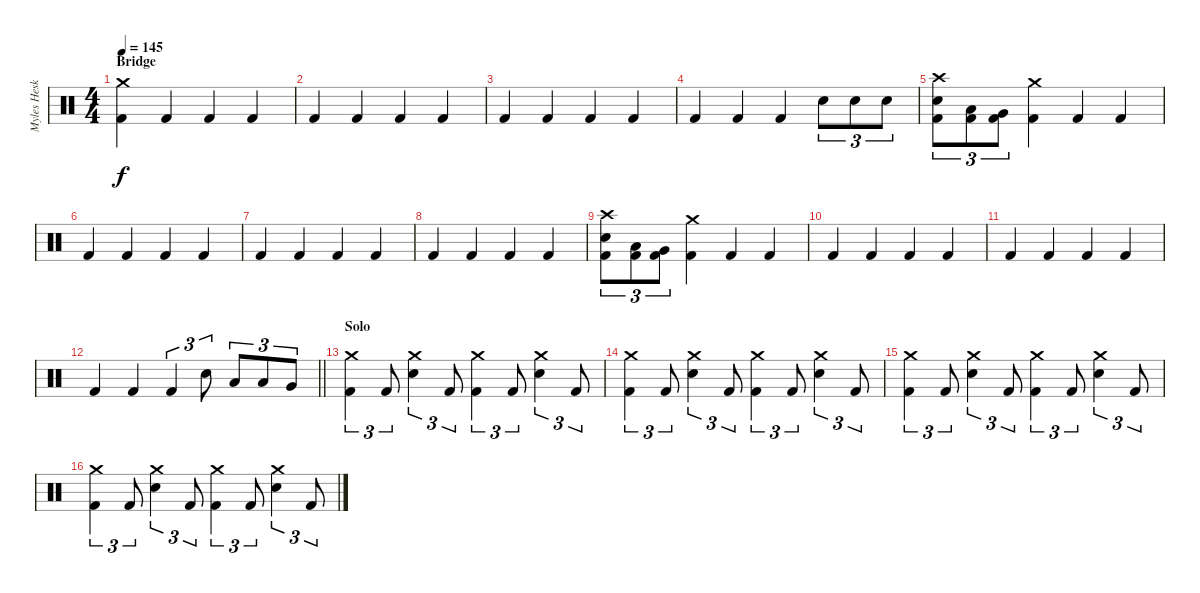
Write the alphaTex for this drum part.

\track ("Myles Heskett" "Myles Hesk") {instrument percussion}
\staff {score}
\articulation defaults
\ts (4 4)
\section ("" "Bridge")
\tempo 145
\clef neutral
\ks c
("Crash medium (hit)" "Kick (hit) 2").4{dy f} "Kick (hit) 2".4 "Kick (hit) 2".4 "Kick (hit) 2".4 |
"Kick (hit) 2".4 "Kick (hit) 2".4 "Kick (hit) 2".4 "Kick (hit) 2".4 |
"Kick (hit) 2".4 "Kick (hit) 2".4 "Kick (hit) 2".4 "Kick (hit) 2".4 |
"Kick (hit) 2".4 "Kick (hit) 2".4 "Kick (hit) 2".4 "Snare (hit) 2".8{tu (3 2)} "Snare (hit) 2".8{tu (3 2)} "Snare (hit) 2".8{tu (3 2)} |
("Crash high (hit)" "Snare (hit) 2" "Kick (hit) 2").8{tu (3 2)} ("Low Tom (hit)" "Kick (hit) 2").8{tu (3 2)} ("Very Low Tom (hit)" "Kick (hit) 2").8{tu (3 2)} ("Crash medium (hit)" "Kick (hit) 2").4 "Kick (hit) 2".4 "Kick (hit) 2".4 |
"Kick (hit) 2".4 "Kick (hit) 2".4 "Kick (hit) 2".4 "Kick (hit) 2".4 |
"Kick (hit) 2".4 "Kick (hit) 2".4 "Kick (hit) 2".4 "Kick (hit) 2".4 |
"Kick (hit) 2".4 "Kick (hit) 2".4 "Kick (hit) 2".4 "Kick (hit) 2".4 |
("Crash high (hit)" "Snare (hit) 2" "Kick (hit) 2").8{tu (3 2)} ("Low Tom (hit)" "Kick (hit) 2").8{tu (3 2)} ("Very Low Tom (hit)" "Kick (hit) 2").8{tu (3 2)} ("Crash medium (hit)" "Kick (hit) 2").4 "Kick (hit) 2".4 "Kick (hit) 2".4 |
"Kick (hit) 2".4 "Kick (hit) 2".4 "Kick (hit) 2".4 "Kick (hit) 2".4 |
"Kick (hit) 2".4 "Kick (hit) 2".4 "Kick (hit) 2".4 "Kick (hit) 2".4 |
\barLineRight lightlight "Kick (hit) 2".4 "Kick (hit) 2".4 "Kick (hit) 2".4{tu (3 2)} "Snare (hit) 2".8{tu (3 2)} "Low Tom (hit)".8{tu (3 2)} "Low Tom (hit)".8{tu (3 2)} "Very Low Tom (hit)".8{tu (3 2)}
|
\section ("" "Solo")
("Crash medium (hit)" "Kick (hit) 2").4{tu (3 2)} "Kick (hit) 2".8{tu (3 2)} ("Crash medium (hit)" "Snare (hit) 2").4{tu (3 2)} "Kick (hit) 2".8{tu (3 2)} ("Crash medium (hit)" "Kick (hit) 2").4{tu (3 2)} "Kick (hit) 2".8{tu (3 2)} ("Crash medium (hit)" "Snare (hit) 2").4{tu (3 2)} "Kick (hit) 2".8{tu (3 2)} |
("Crash medium (hit)" "Kick (hit) 2").4{tu (3 2)} "Kick (hit) 2".8{tu (3 2)} ("Crash medium (hit)" "Snare (hit) 2").4{tu (3 2)} "Kick (hit) 2".8{tu (3 2)} ("Crash medium (hit)" "Kick (hit) 2").4{tu (3 2)} "Kick (hit) 2".8{tu (3 2)} ("Crash medium (hit)" "Snare (hit) 2").4{tu (3 2)} "Kick (hit) 2".8{tu (3 2)} |
("Crash medium (hit)" "Kick (hit) 2").4{tu (3 2)} "Kick (hit) 2".8{tu (3 2)} ("Crash medium (hit)" "Snare (hit) 2").4{tu (3 2)} "Kick (hit) 2".8{tu (3 2)} ("Crash medium (hit)" "Kick (hit) 2").4{tu (3 2)} "Kick (hit) 2".8{tu (3 2)} ("Crash medium (hit)" "Snare (hit) 2").4{tu (3 2)} "Kick (hit) 2".8{tu (3 2)} |
("Crash medium (hit)" "Kick (hit) 2").4{tu (3 2)} "Kick (hit) 2".8{tu (3 2)} ("Crash medium (hit)" "Snare (hit) 2").4{tu (3 2)} "Kick (hit) 2".8{tu (3 2)} ("Crash medium (hit)" "Kick (hit) 2").4{tu (3 2)} "Kick (hit) 2".8{tu (3 2)} ("Crash medium (hit)" "Snare (hit) 2").4{tu (3 2)} "Kick (hit) 2".8{tu (3 2)}
